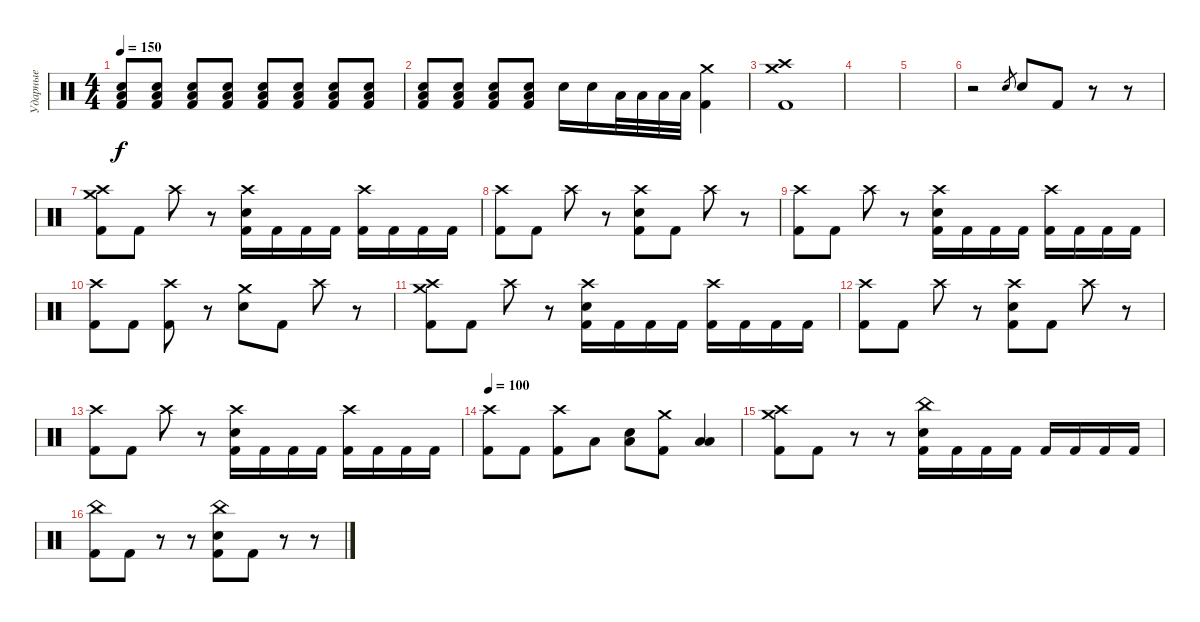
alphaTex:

\track ("Ударные" "Ударные") {instrument percussion}
\staff {score}
\articulation defaults
\ts (4 4)
\tempo 150
\clef neutral
\ks c
("Low Floor Tom (hit)" "Electric Snare (hit)" "Kick (hit) 2").8{dy f} ("Low Floor Tom (hit)" "Electric Snare (hit)" "Kick (hit) 2").8 ("Low Floor Tom (hit)" "Electric Snare (hit)" "Kick (hit) 2").8 ("Low Floor Tom (hit)" "Electric Snare (hit)" "Kick (hit) 2").8 ("Low Floor Tom (hit)" "Electric Snare (hit)" "Kick (hit) 2").8 ("Low Floor Tom (hit)" "Electric Snare (hit)" "Kick (hit) 2").8 ("Low Floor Tom (hit)" "Electric Snare (hit)" "Kick (hit) 2").8 ("Low Floor Tom (hit)" "Electric Snare (hit)" "Kick (hit) 2").8 |
("Low Floor Tom (hit)" "Electric Snare (hit)" "Kick (hit) 2").8 ("Low Floor Tom (hit)" "Electric Snare (hit)" "Kick (hit) 2").8 ("Low Floor Tom (hit)" "Electric Snare (hit)" "Kick (hit) 2").8 ("Low Floor Tom (hit)" "Electric Snare (hit)" "Kick (hit) 2").8 "Electric Snare (hit)".16 "Electric Snare (hit)".16 "Low Tom (hit)".32 "Low Tom (hit)".32 "Low Floor Tom (hit)".32 "Low Floor Tom (hit)".32 ("Crash medium (hit)" "Kick (hit) 2").4 |
("Crash medium (hit)" "Crash high (hit)" "Kick (hit) 2").1 |
|
|
r.2 "Electric Snare (hit)".8{gr} "Electric Snare (hit)".8 "Kick (hit) 2".8 r.8 r.8 |
("Crash medium (hit)" "Crash high (hit)" "Kick (hit) 2").8 "Kick (hit) 2".8 "Crash high (hit)".8 r.8 ("Crash high (hit)" "Electric Snare (hit)" "Kick (hit) 2").16 "Kick (hit) 2".16 "Kick (hit) 2".16 "Kick (hit) 2".16 ("Crash high (hit)" "Kick (hit) 2").16 "Kick (hit) 2".16 "Kick (hit) 2".16 "Kick (hit) 2".16 |
("Crash high (hit)" "Kick (hit) 2").8 "Kick (hit) 2".8 "Crash high (hit)".8 r.8 ("Crash high (hit)" "Electric Snare (hit)" "Kick (hit) 2").8 "Kick (hit) 2".8 "Crash high (hit)".8 r.8 |
("Crash high (hit)" "Kick (hit) 2").8 "Kick (hit) 2".8 "Crash high (hit)".8 r.8 ("Crash high (hit)" "Electric Snare (hit)" "Kick (hit) 2").16 "Kick (hit) 2".16 "Kick (hit) 2".16 "Kick (hit) 2".16 ("Crash high (hit)" "Kick (hit) 2").16 "Kick (hit) 2".16 "Kick (hit) 2".16 "Kick (hit) 2".16 |
("Crash high (hit)" "Kick (hit) 2").8 "Kick (hit) 2".8 ("Crash high (hit)" "Kick (hit) 2").8 r.8 ("Crash medium (hit)" "Electric Snare (hit)").8 "Kick (hit) 2".8 "Crash high (hit)".8 r.8 |
("Crash medium (hit)" "Crash high (hit)" "Kick (hit) 2").8 "Kick (hit) 2".8 "Crash high (hit)".8 r.8 ("Crash high (hit)" "Electric Snare (hit)" "Kick (hit) 2").16 "Kick (hit) 2".16 "Kick (hit) 2".16 "Kick (hit) 2".16 ("Crash high (hit)" "Kick (hit) 2").16 "Kick (hit) 2".16 "Kick (hit) 2".16 "Kick (hit) 2".16 |
("Crash high (hit)" "Kick (hit) 2").8 "Kick (hit) 2".8 "Crash high (hit)".8 r.8 ("Crash high (hit)" "Electric Snare (hit)" "Kick (hit) 2").8 "Kick (hit) 2".8 "Crash high (hit)".8 r.8 |
("Crash high (hit)" "Kick (hit) 2").8 "Kick (hit) 2".8 "Crash high (hit)".8 r.8 ("Crash high (hit)" "Electric Snare (hit)" "Kick (hit) 2").16 "Kick (hit) 2".16 "Kick (hit) 2".16 "Kick (hit) 2".16 ("Crash high (hit)" "Kick (hit) 2").16 "Kick (hit) 2".16 "Kick (hit) 2".16 "Kick (hit) 2".16 |
\tempo 100
("Crash high (hit)" "Kick (hit) 2").8 "Kick (hit) 2".8 ("Crash high (hit)" "Kick (hit) 2").8 "Low Tom (hit)".8 ("Low Floor Tom (hit)" "Electric Snare (hit)").8 ("Crash medium (hit)" "Kick (hit) 2").8 ("Low Tom (hit)" "Low Floor Tom (hit)").4 |
("Crash medium (hit)" "Crash high (hit)" "Kick (hit) 2").8 "Kick (hit) 2".8 r.8 r.8 ("China (hit)" "Electric Snare (hit)" "Kick (hit) 2").16 "Kick (hit) 2".16 "Kick (hit) 2".16 "Kick (hit) 2".16 "Kick (hit) 2".16 "Kick (hit) 2".16 "Kick (hit) 2".16 "Kick (hit) 2".16 |
("China (hit)" "Kick (hit) 2").8 "Kick (hit) 2".8 r.8 r.8 ("China (hit)" "Electric Snare (hit)" "Kick (hit) 2").8 "Kick (hit) 2".8 r.8 r.8
